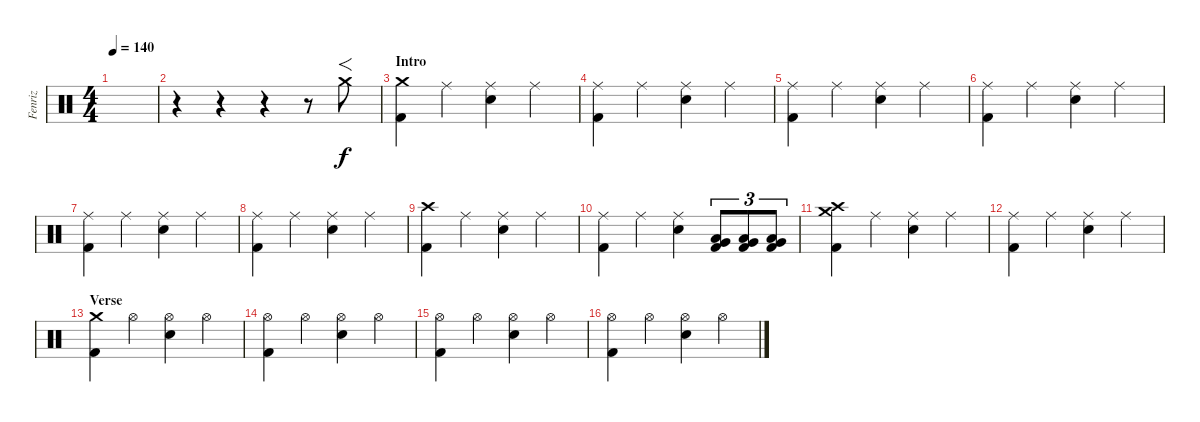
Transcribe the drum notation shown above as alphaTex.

\track ("Fenriz" "Fenriz") {instrument percussion}
\staff {score}
\articulation defaults
\ts (4 4)
\tempo 140
\clef neutral
\ks c
|
r.4 r.4 r.4 r.8 "Crash medium (hit)".8{f} |
\section ("" "Intro")
("Crash medium (hit)" "Kick (hit) 2").4 "Ride (middle)".4 ("Ride (middle)" "Electric Snare (hit)").4 "Ride (middle)".4 |
("Ride (middle)" "Kick (hit) 2").4 "Ride (middle)".4 ("Ride (middle)" "Electric Snare (hit)").4 "Ride (middle)".4 |
("Ride (middle)" "Kick (hit) 2").4 "Ride (middle)".4 ("Ride (middle)" "Electric Snare (hit)").4 "Ride (middle)".4 |
("Ride (middle)" "Kick (hit) 2").4 "Ride (middle)".4 ("Ride (middle)" "Electric Snare (hit)").4 "Ride (middle)".4 |
("Ride (middle)" "Kick (hit) 2").4 "Ride (middle)".4 ("Ride (middle)" "Electric Snare (hit)").4 "Ride (middle)".4 |
("Ride (middle)" "Kick (hit) 2").4 "Ride (middle)".4 ("Ride (middle)" "Electric Snare (hit)").4 "Ride (middle)".4 |
("Crash high (hit)" "Kick (hit) 2").4 "Ride (middle)".4 ("Ride (middle)" "Electric Snare (hit)").4 "Ride (middle)".4 |
("Ride (middle)" "Kick (hit) 2").4 "Ride (middle)".4 ("Ride (middle)" "Electric Snare (hit)").4 ("Very Low Tom (hit)" "Low Floor Tom (hit)" "Kick (hit) 2").8{tu (3 2)} ("Very Low Tom (hit)" "Low Floor Tom (hit)" "Kick (hit) 2").8{tu (3 2)} ("Very Low Tom (hit)" "Low Floor Tom (hit)" "Kick (hit) 2").8{tu (3 2)} |
("Crash medium (hit)" "Crash high (hit)" "Kick (hit) 2").4 "Ride (middle)".4 ("Ride (middle)" "Electric Snare (hit)").4 "Ride (middle)".4 |
("Ride (middle)" "Kick (hit) 2").4 "Ride (middle)".4 ("Ride (middle)" "Electric Snare (hit)").4 "Ride (middle)".4 |
\section ("" "Verse")
("Crash medium (hit)" "Kick (hit) 2").4 "Hi-Hat (open)".4 ("Hi-Hat (open)" "Electric Snare (hit)").4 "Hi-Hat (open)".4 |
("Hi-Hat (open)" "Kick (hit) 2").4 "Hi-Hat (open)".4 ("Hi-Hat (open)" "Electric Snare (hit)").4 "Hi-Hat (open)".4 |
("Hi-Hat (open)" "Kick (hit) 2").4 "Hi-Hat (open)".4 ("Hi-Hat (open)" "Electric Snare (hit)").4 "Hi-Hat (open)".4 |
("Hi-Hat (open)" "Kick (hit) 2").4 "Hi-Hat (open)".4 ("Hi-Hat (open)" "Electric Snare (hit)").4 "Hi-Hat (open)".4
